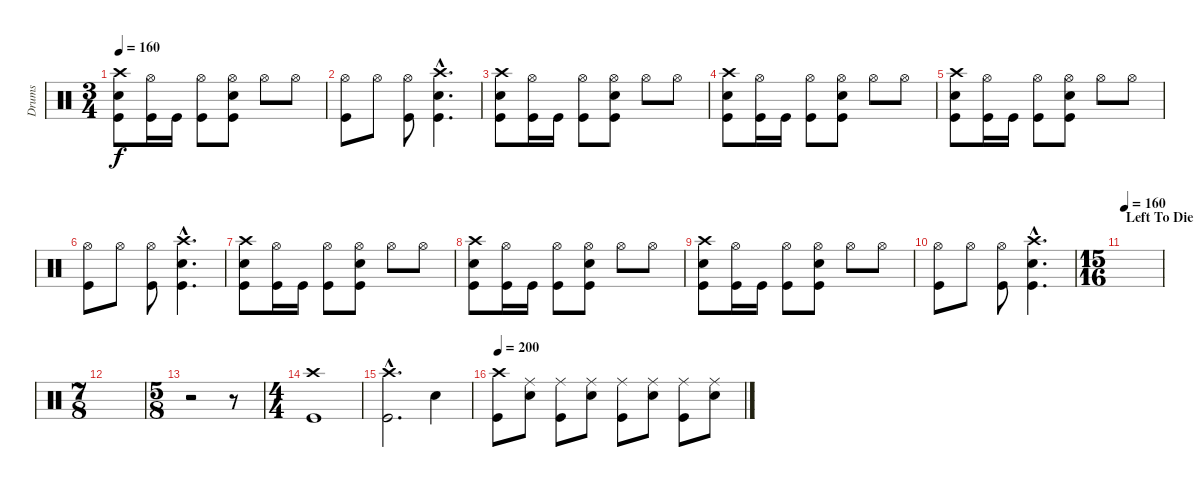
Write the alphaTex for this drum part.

\track ("Drums" "Drums") {instrument percussion}
\staff {score}
\articulation defaults
\ts (3 4)
\tempo 160
\clef neutral
\ks c
("Crash high (hit)" "Snare (hit) 2" "Kick (hit)").8{dy f} ("Hi-Hat (open)" "Kick (hit)").16 "Kick (hit)".16 ("Hi-Hat (open)" "Kick (hit)").8 ("Hi-Hat (open)" "Snare (hit) 2" "Kick (hit)").8 "Hi-Hat (open)".8 "Hi-Hat (open)".8 |
("Hi-Hat (open)" "Kick (hit)").8 "Hi-Hat (open)".8 ("Hi-Hat (open)" "Kick (hit)").8 ("Crash high (hit)"{hac} "Snare (hit) 2"{hac} "Kick (hit)"{hac}).4{d} |
("Crash high (hit)" "Snare (hit) 2" "Kick (hit)").8 ("Hi-Hat (open)" "Kick (hit)").16 "Kick (hit)".16 ("Hi-Hat (open)" "Kick (hit)").8 ("Hi-Hat (open)" "Snare (hit) 2" "Kick (hit)").8 "Hi-Hat (open)".8 "Hi-Hat (open)".8 |
("Crash high (hit)" "Snare (hit) 2" "Kick (hit)").8 ("Hi-Hat (open)" "Kick (hit)").16 "Kick (hit)".16 ("Hi-Hat (open)" "Kick (hit)").8 ("Hi-Hat (open)" "Snare (hit) 2" "Kick (hit)").8 "Hi-Hat (open)".8 "Hi-Hat (open)".8 |
("Crash high (hit)" "Snare (hit) 2" "Kick (hit)").8 ("Hi-Hat (open)" "Kick (hit)").16 "Kick (hit)".16 ("Hi-Hat (open)" "Kick (hit)").8 ("Hi-Hat (open)" "Snare (hit) 2" "Kick (hit)").8 "Hi-Hat (open)".8 "Hi-Hat (open)".8 |
("Hi-Hat (open)" "Kick (hit)").8 "Hi-Hat (open)".8 ("Hi-Hat (open)" "Kick (hit)").8 ("Crash high (hit)"{hac} "Snare (hit) 2"{hac} "Kick (hit)"{hac}).4{d} |
("Crash high (hit)" "Snare (hit) 2" "Kick (hit)").8 ("Hi-Hat (open)" "Kick (hit)").16 "Kick (hit)".16 ("Hi-Hat (open)" "Kick (hit)").8 ("Hi-Hat (open)" "Snare (hit) 2" "Kick (hit)").8 "Hi-Hat (open)".8 "Hi-Hat (open)".8 |
("Crash high (hit)" "Snare (hit) 2" "Kick (hit)").8 ("Hi-Hat (open)" "Kick (hit)").16 "Kick (hit)".16 ("Hi-Hat (open)" "Kick (hit)").8 ("Hi-Hat (open)" "Snare (hit) 2" "Kick (hit)").8 "Hi-Hat (open)".8 "Hi-Hat (open)".8 |
("Crash high (hit)" "Snare (hit) 2" "Kick (hit)").8 ("Hi-Hat (open)" "Kick (hit)").16 "Kick (hit)".16 ("Hi-Hat (open)" "Kick (hit)").8 ("Hi-Hat (open)" "Snare (hit) 2" "Kick (hit)").8 "Hi-Hat (open)".8 "Hi-Hat (open)".8 |
("Hi-Hat (open)" "Kick (hit)").8 "Hi-Hat (open)".8 ("Hi-Hat (open)" "Kick (hit)").8 ("Crash high (hit)"{hac} "Snare (hit) 2"{hac} "Kick (hit)"{hac}).4{d} |
\ts (15 16)
\section ("" "Left To Die")
\tempo 160
|
\ts (7 8)
|
\ts (5 8)
r.2 r.8 |
\ts (4 4)
("Crash high (hit)" "Kick (hit)").1 |
("Crash high (hit)"{hac} "Kick (hit)"{hac}).2{d} "Snare (hit) 2".4 |
\tempo 200
("Crash high (hit)" "Kick (hit)").8 ("Ride (middle)" "Snare (hit) 2").8 ("Ride (middle)" "Kick (hit)").8 ("Ride (middle)" "Snare (hit) 2").8 ("Ride (middle)" "Kick (hit)").8 ("Ride (middle)" "Snare (hit) 2").8 ("Ride (middle)" "Kick (hit)").8 ("Ride (middle)" "Snare (hit) 2").8
